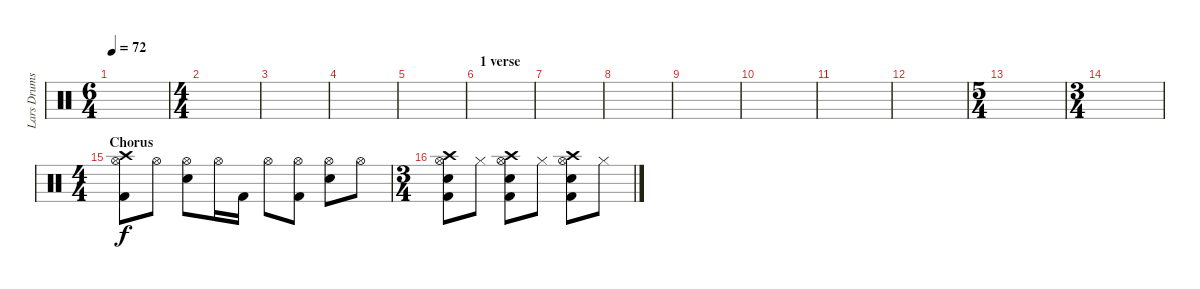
\track ("Lars Drums" "Lars Drums") {instrument percussion}
\staff {score}
\articulation defaults
\ts (6 4)
\tempo 72
\clef neutral
\ks c
|
\ts (4 4)
|
|
|
|
\section ("" "1 verse")
|
|
|
|
|
|
|
\ts (5 4)
|
\ts (3 4)
|
\ts (4 4)
\section ("" "Chorus")
("Kick (hit) 2" "Hi-Hat (open)" "Crash high (hit)").8 "Hi-Hat (open)".8 ("Snare (hit) 2" "Hi-Hat (open)").8 "Hi-Hat (open)".16 "Kick (hit) 2".16 "Hi-Hat (open)".8 ("Kick (hit) 2" "Hi-Hat (open)").8 ("Snare (hit) 2" "Hi-Hat (open)").8 "Hi-Hat (open)".8 |
\ts (3 4)
("Kick (hit) 2" "Snare (hit) 2" "Hi-Hat (open)" "Crash high (hit)").8 "Hi-Hat (closed)".8 ("Kick (hit) 2" "Snare (hit) 2" "Hi-Hat (open)" "Crash high (hit)").8 "Hi-Hat (closed)".8 ("Kick (hit) 2" "Snare (hit) 2" "Hi-Hat (open)" "Crash high (hit)").8 "Hi-Hat (closed)".8
